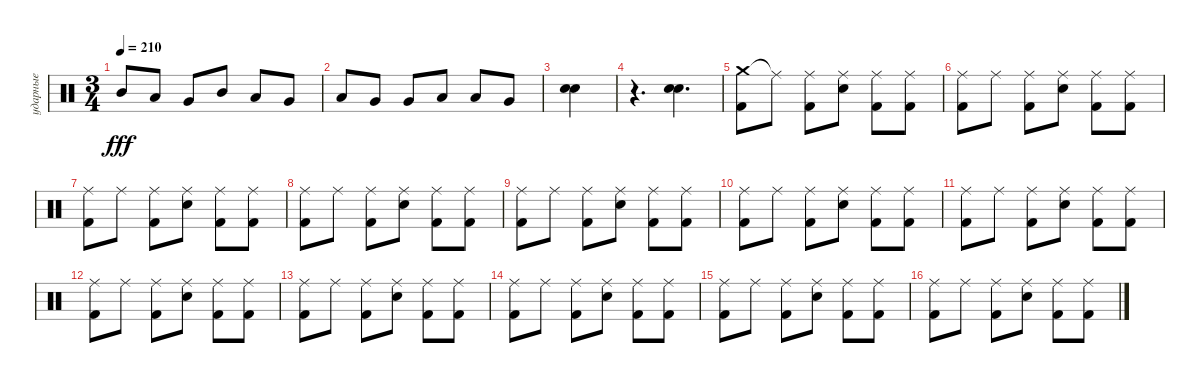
\track ("ударные" "ударные") {instrument percussion}
\staff {score}
\articulation defaults
\ts (3 4)
\tempo 210
\clef neutral
\ks c "Mid Tom (hit)".8{dy fff} "Low Tom (hit)".8 "Very Low Tom (hit)".8 "Mid Tom (hit)".8 "Low Tom (hit)".8 "Very Low Tom (hit)".8
|
"Low Tom (hit)".8 "Very Low Tom (hit)".8 "Very Low Tom (hit)".8 "Low Tom (hit)".8 "Low Tom (hit)".8 "Very Low Tom (hit)".8 |
("Snare (hit) 2" "Snare (hit) 2").4{bd 240} |
r.4{d} ("Snare (hit) 2" "Snare (hit) 2").4{d bd 120} |
("Crash medium (hit)" "Kick (hit) 2").8 "Ride (middle)"{t}.8 ("Ride (middle)" "Kick (hit) 2").8 ("Ride (middle)" "Snare (hit) 2").8 ("Ride (middle)" "Kick (hit) 2").8 ("Ride (middle)" "Kick (hit) 2").8 |
("Ride (middle)" "Kick (hit) 2").8 "Ride (middle)".8 ("Ride (middle)" "Kick (hit) 2").8 ("Ride (middle)" "Snare (hit) 2").8 ("Ride (middle)" "Kick (hit) 2").8 ("Ride (middle)" "Kick (hit) 2").8 |
("Ride (middle)" "Kick (hit) 2").8 "Ride (middle)".8 ("Ride (middle)" "Kick (hit) 2").8 ("Ride (middle)" "Snare (hit) 2").8 ("Ride (middle)" "Kick (hit) 2").8 ("Ride (middle)" "Kick (hit) 2").8 |
("Ride (middle)" "Kick (hit) 2").8 "Ride (middle)".8 ("Ride (middle)" "Kick (hit) 2").8 ("Ride (middle)" "Snare (hit) 2").8 ("Ride (middle)" "Kick (hit) 2").8 ("Ride (middle)" "Kick (hit) 2").8 |
("Ride (middle)" "Kick (hit) 2").8 "Ride (middle)".8 ("Ride (middle)" "Kick (hit) 2").8 ("Ride (middle)" "Snare (hit) 2").8 ("Ride (middle)" "Kick (hit) 2").8 ("Ride (middle)" "Kick (hit) 2").8 |
("Ride (middle)" "Kick (hit) 2").8 "Ride (middle)".8 ("Ride (middle)" "Kick (hit) 2").8 ("Ride (middle)" "Snare (hit) 2").8 ("Ride (middle)" "Kick (hit) 2").8 ("Ride (middle)" "Kick (hit) 2").8 |
("Ride (middle)" "Kick (hit) 2").8 "Ride (middle)".8 ("Ride (middle)" "Kick (hit) 2").8 ("Ride (middle)" "Snare (hit) 2").8 ("Ride (middle)" "Kick (hit) 2").8 ("Ride (middle)" "Kick (hit) 2").8 |
("Ride (middle)" "Kick (hit) 2").8 "Ride (middle)".8 ("Ride (middle)" "Kick (hit) 2").8 ("Ride (middle)" "Snare (hit) 2").8 ("Ride (middle)" "Kick (hit) 2").8 ("Ride (middle)" "Kick (hit) 2").8 |
("Ride (middle)" "Kick (hit) 2").8 "Ride (middle)".8 ("Ride (middle)" "Kick (hit) 2").8 ("Ride (middle)" "Snare (hit) 2").8 ("Ride (middle)" "Kick (hit) 2").8 ("Ride (middle)" "Kick (hit) 2").8 |
("Ride (middle)" "Kick (hit) 2").8 "Ride (middle)".8 ("Ride (middle)" "Kick (hit) 2").8 ("Ride (middle)" "Snare (hit) 2").8 ("Ride (middle)" "Kick (hit) 2").8 ("Ride (middle)" "Kick (hit) 2").8 |
("Ride (middle)" "Kick (hit) 2").8 "Ride (middle)".8 ("Ride (middle)" "Kick (hit) 2").8 ("Ride (middle)" "Snare (hit) 2").8 ("Ride (middle)" "Kick (hit) 2").8 ("Ride (middle)" "Kick (hit) 2").8 |
("Ride (middle)" "Kick (hit) 2").8 "Ride (middle)".8 ("Ride (middle)" "Kick (hit) 2").8 ("Ride (middle)" "Snare (hit) 2").8 ("Ride (middle)" "Kick (hit) 2").8 ("Ride (middle)" "Kick (hit) 2").8
